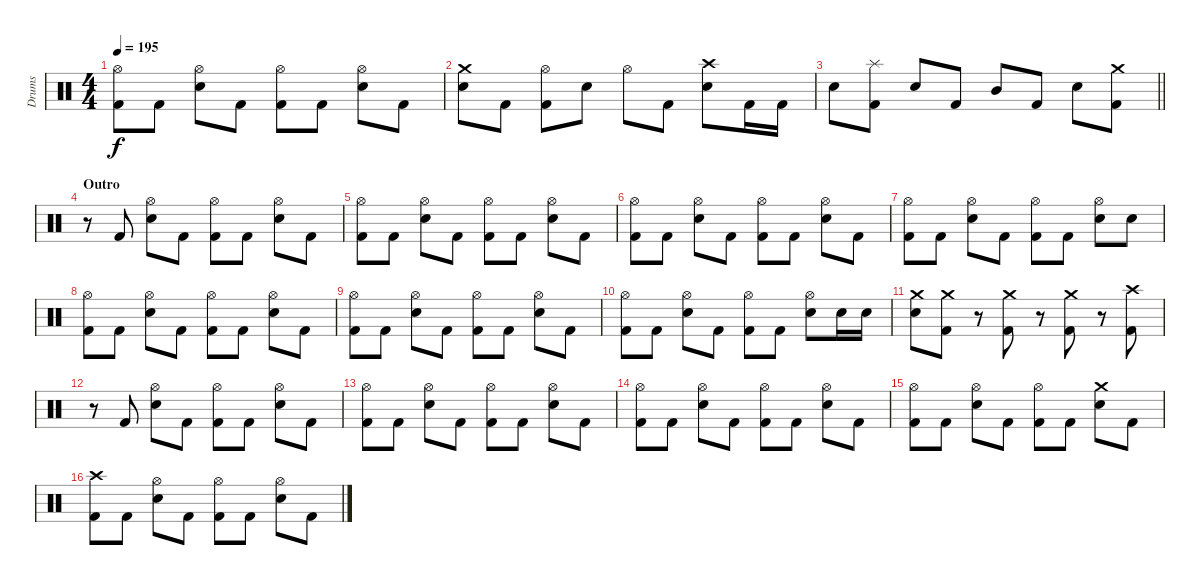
\track ("Drums" "Drums") {instrument percussion}
\staff {score}
\articulation defaults
\ts (4 4)
\tempo 195
\clef neutral
\ks c
("Hi-Hat (open)" "Kick (hit) 2").8{dy f} "Kick (hit) 2".8 ("Hi-Hat (open)" "Electric Snare (hit)").8 "Kick (hit) 2".8 ("Hi-Hat (open)" "Kick (hit) 2").8 "Kick (hit) 2".8 ("Hi-Hat (open)" "Electric Snare (hit)").8 "Kick (hit) 2".8 |
("Crash medium (hit)" "Electric Snare (hit)").8 "Kick (hit) 2".8 ("Hi-Hat (open)" "Kick (hit) 2").8 "Electric Snare (hit)".8 "Hi-Hat (open)".8 "Kick (hit) 2".8 ("Crash high (hit)" "Electric Snare (hit)").8 "Kick (hit) 2".16 "Kick (hit) 2".16 |
\barLineRight lightlight "Electric Snare (hit)".8
("Splash (hit)" "Kick (hit) 2").8 "Electric Snare (hit)".8 "Kick (hit) 2".8 "Mid Tom (hit)".8 "Kick (hit) 2".8 "Electric Snare (hit)".8 ("Crash medium (hit)" "Kick (hit) 2").8 |
\section ("" "Outro")
r.8 "Kick (hit) 2".8 ("Hi-Hat (open)" "Electric Snare (hit)").8 "Kick (hit) 2".8 ("Hi-Hat (open)" "Kick (hit) 2").8 "Kick (hit) 2".8 ("Hi-Hat (open)" "Electric Snare (hit)").8 "Kick (hit) 2".8 |
("Hi-Hat (open)" "Kick (hit) 2").8 "Kick (hit) 2".8 ("Hi-Hat (open)" "Electric Snare (hit)").8 "Kick (hit) 2".8 ("Hi-Hat (open)" "Kick (hit) 2").8 "Kick (hit) 2".8 ("Hi-Hat (open)" "Electric Snare (hit)").8 "Kick (hit) 2".8 |
("Hi-Hat (open)" "Kick (hit) 2").8 "Kick (hit) 2".8 ("Hi-Hat (open)" "Electric Snare (hit)").8 "Kick (hit) 2".8 ("Hi-Hat (open)" "Kick (hit) 2").8 "Kick (hit) 2".8 ("Hi-Hat (open)" "Electric Snare (hit)").8 "Kick (hit) 2".8 |
("Hi-Hat (open)" "Kick (hit) 2").8 "Kick (hit) 2".8 ("Hi-Hat (open)" "Electric Snare (hit)").8 "Kick (hit) 2".8 ("Hi-Hat (open)" "Kick (hit) 2").8 "Kick (hit) 2".8 ("Hi-Hat (open)" "Electric Snare (hit)").8 "Electric Snare (hit)".8 |
("Hi-Hat (open)" "Kick (hit) 2").8 "Kick (hit) 2".8 ("Hi-Hat (open)" "Electric Snare (hit)").8 "Kick (hit) 2".8 ("Hi-Hat (open)" "Kick (hit) 2").8 "Kick (hit) 2".8 ("Hi-Hat (open)" "Electric Snare (hit)").8 "Kick (hit) 2".8 |
("Hi-Hat (open)" "Kick (hit) 2").8 "Kick (hit) 2".8 ("Hi-Hat (open)" "Electric Snare (hit)").8 "Kick (hit) 2".8 ("Hi-Hat (open)" "Kick (hit) 2").8 "Kick (hit) 2".8 ("Hi-Hat (open)" "Electric Snare (hit)").8 "Kick (hit) 2".8 |
("Hi-Hat (open)" "Kick (hit) 2").8 "Kick (hit) 2".8 ("Hi-Hat (open)" "Electric Snare (hit)").8 "Kick (hit) 2".8 ("Hi-Hat (open)" "Kick (hit) 2").8 "Kick (hit) 2".8 ("Hi-Hat (open)" "Electric Snare (hit)").8 "Electric Snare (hit)".16 "Electric Snare (hit)".16 |
("Crash medium (hit)" "Electric Snare (hit)").8 ("Crash medium (hit)" "Kick (hit) 2").8 r.8 ("Crash medium (hit)" "Kick (hit) 2").8 r.8 ("Crash medium (hit)" "Kick (hit) 2").8 r.8 ("Crash high (hit)" "Kick (hit) 2").8 |
r.8 "Kick (hit) 2".8 ("Hi-Hat (open)" "Electric Snare (hit)").8 "Kick (hit) 2".8 ("Hi-Hat (open)" "Kick (hit) 2").8 "Kick (hit) 2".8 ("Hi-Hat (open)" "Electric Snare (hit)").8 "Kick (hit) 2".8 |
("Hi-Hat (open)" "Kick (hit) 2").8 "Kick (hit) 2".8 ("Hi-Hat (open)" "Electric Snare (hit)").8 "Kick (hit) 2".8 ("Hi-Hat (open)" "Kick (hit) 2").8 "Kick (hit) 2".8 ("Hi-Hat (open)" "Electric Snare (hit)").8 "Kick (hit) 2".8 |
("Hi-Hat (open)" "Kick (hit) 2").8 "Kick (hit) 2".8 ("Hi-Hat (open)" "Electric Snare (hit)").8 "Kick (hit) 2".8 ("Hi-Hat (open)" "Kick (hit) 2").8 "Kick (hit) 2".8 ("Hi-Hat (open)" "Electric Snare (hit)").8 "Kick (hit) 2".8 |
("Hi-Hat (open)" "Kick (hit) 2").8 "Kick (hit) 2".8 ("Hi-Hat (open)" "Electric Snare (hit)").8 "Kick (hit) 2".8 ("Hi-Hat (open)" "Kick (hit) 2").8 "Kick (hit) 2".8 ("Crash medium (hit)" "Electric Snare (hit)").8 "Kick (hit) 2".8 |
("Crash high (hit)" "Kick (hit) 2").8 "Kick (hit) 2".8 ("Hi-Hat (open)" "Electric Snare (hit)").8 "Kick (hit) 2".8 ("Hi-Hat (open)" "Kick (hit) 2").8 "Kick (hit) 2".8 ("Hi-Hat (open)" "Electric Snare (hit)").8 "Kick (hit) 2".8
